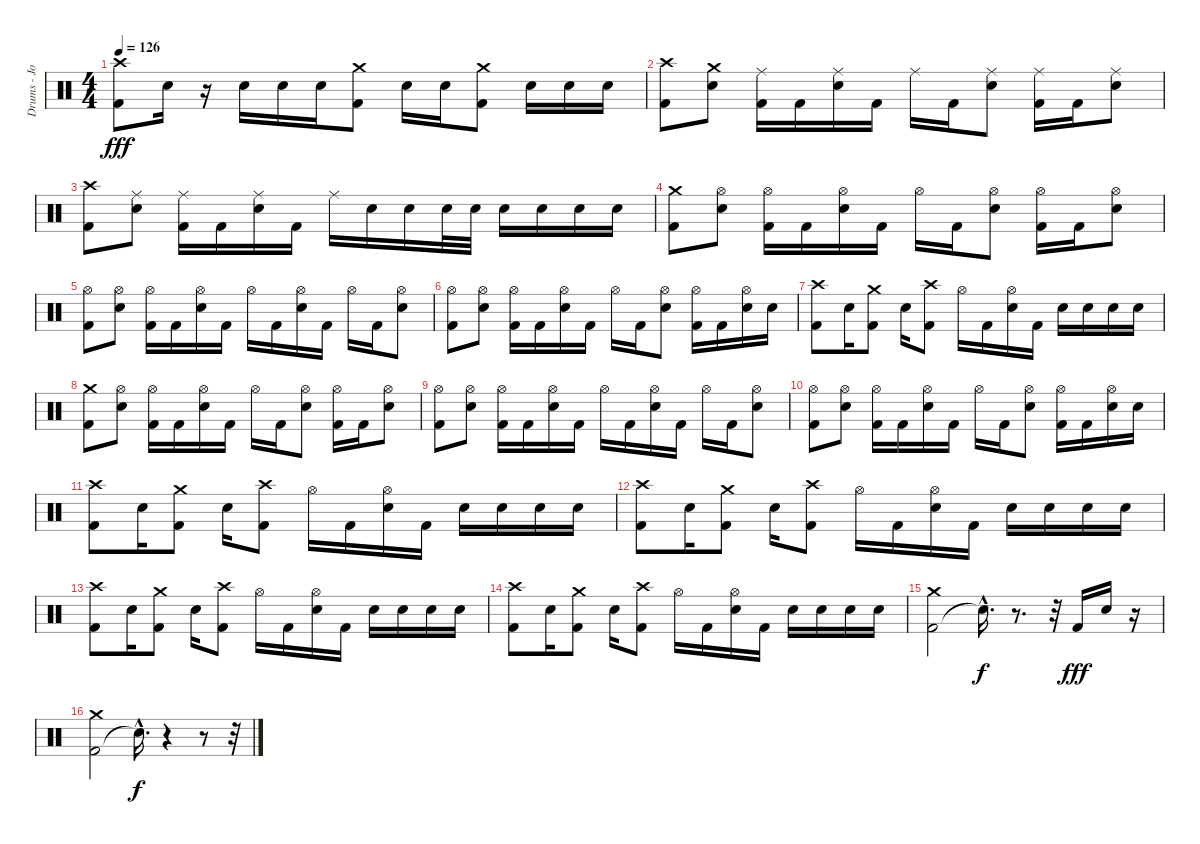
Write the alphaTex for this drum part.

\track ("Drums - Jordan" "Drums - Jo") {instrument percussion}
\staff {score}
\articulation defaults
\ts (4 4)
\tempo 126
\clef neutral
\ks c
("Crash high (hit)" "Kick (hit) 2").8{dy fff} "Electric Snare (hit)".16 r.16 "Electric Snare (hit)".16 "Electric Snare (hit)".16 "Electric Snare (hit)".16 ("Crash medium (hit)" "Kick (hit) 2").8 "Electric Snare (hit)".16 "Electric Snare (hit)".16 ("Crash medium (hit)" "Kick (hit) 2").8 "Electric Snare (hit)".16 "Electric Snare (hit)".16 "Electric Snare (hit)".16 |
("Kick (hit) 2" "Crash high (hit)").8 ("Electric Snare (hit)" "Crash medium (hit)").8 ("Kick (hit) 2" "Ride (middle)").16 "Kick (hit) 2".16 ("Electric Snare (hit)" "Ride (middle)").16 "Kick (hit) 2".16 "Ride (middle)".16 "Kick (hit) 2".16 ("Electric Snare (hit)" "Ride (middle)").8 ("Kick (hit) 2" "Ride (middle)").16 "Kick (hit) 2".16 ("Electric Snare (hit)" "Ride (middle)").8 |
("Kick (hit) 2" "Crash high (hit)").8 ("Electric Snare (hit)" "Ride (middle)").8 ("Kick (hit) 2" "Ride (middle)").16 "Kick (hit) 2".16 ("Electric Snare (hit)" "Ride (middle)").16 "Kick (hit) 2".16 "Ride (middle)".16 "Electric Snare (hit)".16 "Electric Snare (hit)".16 "Electric Snare (hit)".32 "Electric Snare (hit)".32 "Electric Snare (hit)".16 "Electric Snare (hit)".16 "Electric Snare (hit)".16 "Electric Snare (hit)".16 |
("Kick (hit) 2" "Crash medium (hit)").8 ("Electric Snare (hit)" "Hi-Hat (open)").8 ("Kick (hit) 2" "Hi-Hat (open)").16 "Kick (hit) 2".16 ("Electric Snare (hit)" "Hi-Hat (open)").16 "Kick (hit) 2".16 "Hi-Hat (open)".16 "Kick (hit) 2".16 ("Electric Snare (hit)" "Hi-Hat (open)").8 ("Kick (hit) 2" "Hi-Hat (open)").16 "Kick (hit) 2".16 ("Electric Snare (hit)" "Hi-Hat (open)").8 |
("Kick (hit) 2" "Hi-Hat (open)").8 ("Electric Snare (hit)" "Hi-Hat (open)").8 ("Kick (hit) 2" "Hi-Hat (open)").16 "Kick (hit) 2".16 ("Electric Snare (hit)" "Hi-Hat (open)").16 "Kick (hit) 2".16 "Hi-Hat (open)".16 "Kick (hit) 2".16 ("Electric Snare (hit)" "Hi-Hat (open)").16 "Kick (hit) 2".16 "Hi-Hat (open)".16 "Kick (hit) 2".16 ("Electric Snare (hit)" "Hi-Hat (open)").8 |
("Kick (hit) 2" "Hi-Hat (open)").8 ("Electric Snare (hit)" "Hi-Hat (open)").8 ("Kick (hit) 2" "Hi-Hat (open)").16 "Kick (hit) 2".16 ("Electric Snare (hit)" "Hi-Hat (open)").16 "Kick (hit) 2".16 "Hi-Hat (open)".16 "Kick (hit) 2".16 ("Electric Snare (hit)" "Hi-Hat (open)").8 ("Kick (hit) 2" "Hi-Hat (open)").16 "Kick (hit) 2".16 ("Electric Snare (hit)" "Hi-Hat (open)").16 "Electric Snare (hit)".16 |
("Kick (hit) 2" "Crash high (hit)").8 "Electric Snare (hit)".16 ("Kick (hit) 2" "Crash medium (hit)").8 "Electric Snare (hit)".16 ("Kick (hit) 2" "Crash high (hit)").8 "Hi-Hat (open)".16 "Kick (hit) 2".16 ("Electric Snare (hit)" "Hi-Hat (open)").16 "Kick (hit) 2".16 "Electric Snare (hit)".16 "Electric Snare (hit)".16 "Electric Snare (hit)".16 "Electric Snare (hit)".16 |
("Kick (hit) 2" "Crash medium (hit)").8 ("Electric Snare (hit)" "Hi-Hat (open)").8 ("Kick (hit) 2" "Hi-Hat (open)").16 "Kick (hit) 2".16 ("Electric Snare (hit)" "Hi-Hat (open)").16 "Kick (hit) 2".16 "Hi-Hat (open)".16 "Kick (hit) 2".16 ("Electric Snare (hit)" "Hi-Hat (open)").8 ("Kick (hit) 2" "Hi-Hat (open)").16 "Kick (hit) 2".16 ("Electric Snare (hit)" "Hi-Hat (open)").8 |
("Kick (hit) 2" "Hi-Hat (open)").8 ("Electric Snare (hit)" "Hi-Hat (open)").8 ("Kick (hit) 2" "Hi-Hat (open)").16 "Kick (hit) 2".16 ("Electric Snare (hit)" "Hi-Hat (open)").16 "Kick (hit) 2".16 "Hi-Hat (open)".16 "Kick (hit) 2".16 ("Electric Snare (hit)" "Hi-Hat (open)").16 "Kick (hit) 2".16 "Hi-Hat (open)".16 "Kick (hit) 2".16 ("Electric Snare (hit)" "Hi-Hat (open)").8 |
("Kick (hit) 2" "Hi-Hat (open)").8 ("Electric Snare (hit)" "Hi-Hat (open)").8 ("Kick (hit) 2" "Hi-Hat (open)").16 "Kick (hit) 2".16 ("Electric Snare (hit)" "Hi-Hat (open)").16 "Kick (hit) 2".16 "Hi-Hat (open)".16 "Kick (hit) 2".16 ("Electric Snare (hit)" "Hi-Hat (open)").8 ("Kick (hit) 2" "Hi-Hat (open)").16 "Kick (hit) 2".16 ("Electric Snare (hit)" "Hi-Hat (open)").16 "Electric Snare (hit)".16 |
("Kick (hit) 2" "Crash high (hit)").8 "Electric Snare (hit)".16 ("Kick (hit) 2" "Crash medium (hit)").8 "Electric Snare (hit)".16 ("Kick (hit) 2" "Crash high (hit)").8 "Hi-Hat (open)".16 "Kick (hit) 2".16 ("Electric Snare (hit)" "Hi-Hat (open)").16 "Kick (hit) 2".16 "Electric Snare (hit)".16 "Electric Snare (hit)".16 "Electric Snare (hit)".16 "Electric Snare (hit)".16 |
("Kick (hit) 2" "Crash high (hit)").8 "Electric Snare (hit)".16 ("Kick (hit) 2" "Crash medium (hit)").8 "Electric Snare (hit)".16 ("Kick (hit) 2" "Crash high (hit)").8 "Hi-Hat (open)".16 "Kick (hit) 2".16 ("Electric Snare (hit)" "Hi-Hat (open)").16 "Kick (hit) 2".16 "Electric Snare (hit)".16 "Electric Snare (hit)".16 "Electric Snare (hit)".16 "Electric Snare (hit)".16 |
("Kick (hit) 2" "Crash high (hit)").8 "Electric Snare (hit)".16 ("Kick (hit) 2" "Crash medium (hit)").8 "Electric Snare (hit)".16 ("Kick (hit) 2" "Crash high (hit)").8 "Hi-Hat (open)".16 "Kick (hit) 2".16 ("Electric Snare (hit)" "Hi-Hat (open)").16 "Kick (hit) 2".16 "Electric Snare (hit)".16 "Electric Snare (hit)".16 "Electric Snare (hit)".16 "Electric Snare (hit)".16 |
("Kick (hit) 2" "Crash high (hit)").8 "Electric Snare (hit)".16 ("Kick (hit) 2" "Crash medium (hit)").8 "Electric Snare (hit)".16 ("Kick (hit) 2" "Crash high (hit)").8 "Hi-Hat (open)".16 "Kick (hit) 2".16 ("Electric Snare (hit)" "Hi-Hat (open)").16 "Kick (hit) 2".16 "Electric Snare (hit)".16 "Electric Snare (hit)".16 "Electric Snare (hit)".16 "Electric Snare (hit)".16 |
("Kick (hit) 2" "Crash medium (hit)").2 "Snare (hit)"{hac t}.16{d dy f} r.8{d} r.32 "Kick (hit) 2".16{dy fff} "Electric Snare (hit)".16 r.16 |
("Kick (hit) 2" "Crash medium (hit)").2 "Snare (hit)"{hac t}.16{d dy f} r.4 r.8 r.32
